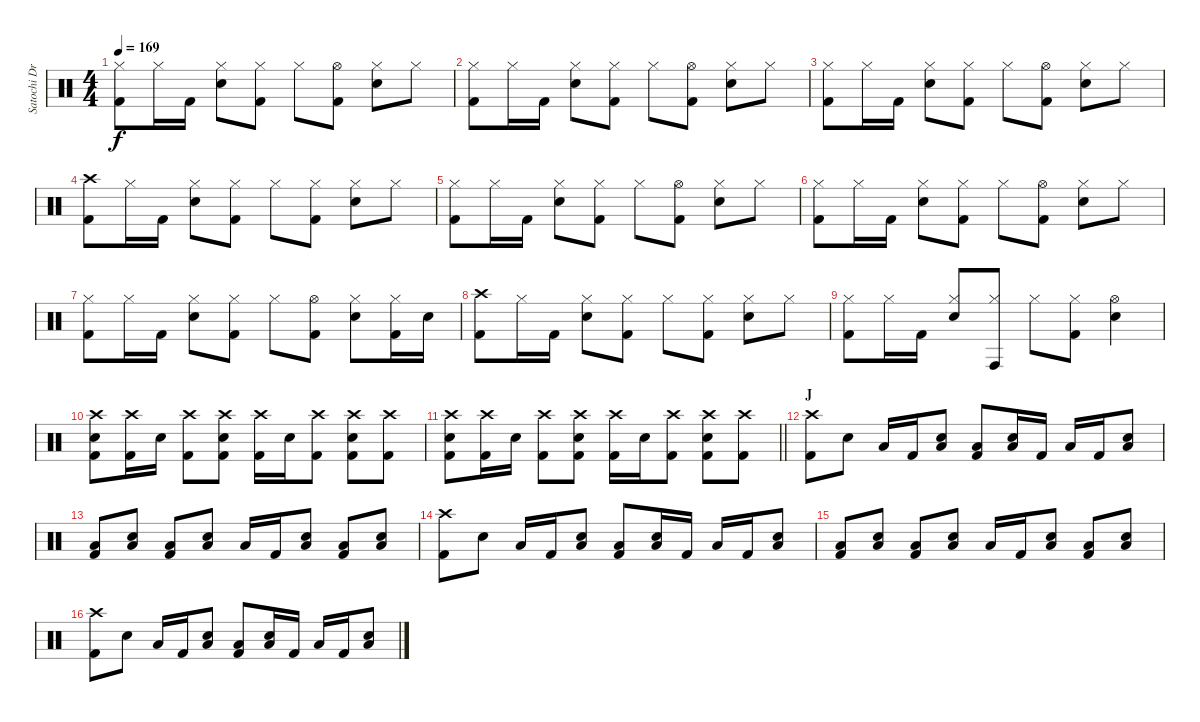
\track ("Satochi Drums" "Satochi Dr") {instrument percussion}
\staff {score}
\articulation defaults
\ts (4 4)
\tempo 169
\clef neutral
\ks c
("Hi-Hat (closed)" "Kick (hit) 2").8{dy f} "Hi-Hat (closed)".16 "Kick (hit) 2".16 ("Hi-Hat (closed)" "Snare (hit) 2").8 ("Hi-Hat (closed)" "Kick (hit) 2").8 "Hi-Hat (closed)".8 ("Hi-Hat (open)" "Kick (hit) 2").8 ("Hi-Hat (closed)" "Snare (hit) 2").8 "Hi-Hat (closed)".8 |
("Hi-Hat (closed)" "Kick (hit) 2").8 "Hi-Hat (closed)".16 "Kick (hit) 2".16 ("Hi-Hat (closed)" "Snare (hit) 2").8 ("Hi-Hat (closed)" "Kick (hit) 2").8 "Hi-Hat (closed)".8 ("Hi-Hat (open)" "Kick (hit) 2").8 ("Hi-Hat (closed)" "Snare (hit) 2").8 "Hi-Hat (closed)".8 |
("Hi-Hat (closed)" "Kick (hit) 2").8 "Hi-Hat (closed)".16 "Kick (hit) 2".16 ("Hi-Hat (closed)" "Snare (hit) 2").8 ("Hi-Hat (closed)" "Kick (hit) 2").8 "Hi-Hat (closed)".8 ("Hi-Hat (open)" "Kick (hit) 2").8 ("Hi-Hat (closed)" "Snare (hit) 2").8 "Hi-Hat (closed)".8 |
("Crash high (hit)" "Kick (hit) 2").8 "Hi-Hat (closed)".16 "Kick (hit) 2".16 ("Hi-Hat (closed)" "Snare (hit) 2").8 ("Hi-Hat (closed)" "Kick (hit) 2").8 "Hi-Hat (closed)".8 ("Hi-Hat (closed)" "Kick (hit) 2").8 ("Hi-Hat (closed)" "Snare (hit) 2").8 "Hi-Hat (closed)".8 |
("Hi-Hat (closed)" "Kick (hit) 2").8 "Hi-Hat (closed)".16 "Kick (hit) 2".16 ("Hi-Hat (closed)" "Snare (hit) 2").8 ("Hi-Hat (closed)" "Kick (hit) 2").8 "Hi-Hat (closed)".8 ("Hi-Hat (open)" "Kick (hit) 2").8 ("Hi-Hat (closed)" "Snare (hit) 2").8 "Hi-Hat (closed)".8 |
("Hi-Hat (closed)" "Kick (hit) 2").8 "Hi-Hat (closed)".16 "Kick (hit) 2".16 ("Hi-Hat (closed)" "Snare (hit) 2").8 ("Hi-Hat (closed)" "Kick (hit) 2").8 "Hi-Hat (closed)".8 ("Hi-Hat (open)" "Kick (hit) 2").8 ("Hi-Hat (closed)" "Snare (hit) 2").8 "Hi-Hat (closed)".8 |
("Hi-Hat (closed)" "Kick (hit) 2").8 "Hi-Hat (closed)".16 "Kick (hit) 2".16 ("Hi-Hat (closed)" "Snare (hit) 2").8 ("Hi-Hat (closed)" "Kick (hit) 2").8 "Hi-Hat (closed)".8 ("Hi-Hat (open)" "Kick (hit) 2").8 ("Hi-Hat (closed)" "Snare (hit) 2").8 ("Hi-Hat (closed)" "Kick (hit) 2").16 "Snare (hit) 2".16 |
("Crash high (hit)" "Kick (hit) 2").8 "Hi-Hat (closed)".16 "Kick (hit) 2".16 ("Hi-Hat (closed)" "Snare (hit) 2").8 ("Hi-Hat (closed)" "Kick (hit) 2").8 "Hi-Hat (closed)".8 ("Hi-Hat (closed)" "Kick (hit) 2").8 ("Hi-Hat (closed)" "Snare (hit) 2").8 "Hi-Hat (closed)".8 |
("Hi-Hat (closed)" "Kick (hit) 2").8 "Hi-Hat (closed)".16 "Kick (hit) 2".16 ("Hi-Hat (closed)" "Snare (hit) 2").8 ("Hi-Hat (closed)" "Conga high (hit)").8 "Hi-Hat (closed)".8 ("Hi-Hat (closed)" "Kick (hit) 2").8 ("Hi-Hat (open)" "Snare (hit) 2").4 |
("Crash high (hit)" "Snare (hit) 2" "Kick (hit) 2").8 ("Crash high (hit)" "Kick (hit) 2").16 "Snare (hit) 2".16 ("Crash high (hit)" "Kick (hit) 2").8 ("Crash high (hit)" "Snare (hit) 2" "Kick (hit) 2").8 ("Crash high (hit)" "Kick (hit) 2").16 "Snare (hit) 2".16 ("Crash high (hit)" "Kick (hit) 2").8 ("Crash high (hit)" "Snare (hit) 2" "Kick (hit) 2").8 ("Crash high (hit)" "Kick (hit) 2").8 |
\barLineRight lightlight
("Crash high (hit)" "Snare (hit) 2" "Kick (hit) 2").8 ("Crash high (hit)" "Kick (hit) 2").16 "Snare (hit) 2".16 ("Crash high (hit)" "Kick (hit) 2").8 ("Crash high (hit)" "Snare (hit) 2" "Kick (hit) 2").8 ("Crash high (hit)" "Kick (hit) 2").16 "Snare (hit) 2".16 ("Crash high (hit)" "Kick (hit) 2").8 ("Crash high (hit)" "Snare (hit) 2" "Kick (hit) 2").8 ("Crash high (hit)" "Kick (hit) 2").8 |
\section ("" "J")
("Crash high (hit)" "Kick (hit) 2").8 "Snare (hit) 2".8 "Low Floor Tom (hit)".16 "Kick (hit) 2".16 ("Snare (hit) 2" "Low Floor Tom (hit)").8 ("Low Floor Tom (hit)" "Kick (hit) 2").8 ("Snare (hit) 2" "Low Floor Tom (hit)").16 "Kick (hit) 2".16 "Low Floor Tom (hit)".16 "Kick (hit) 2".16 ("Snare (hit) 2" "Low Floor Tom (hit)").8 |
("Low Floor Tom (hit)" "Kick (hit) 2").8 ("Snare (hit) 2" "Low Floor Tom (hit)").8 ("Low Floor Tom (hit)" "Kick (hit) 2").8 ("Snare (hit) 2" "Low Floor Tom (hit)").8 "Low Floor Tom (hit)".16 "Kick (hit) 2".16 ("Snare (hit) 2" "Low Floor Tom (hit)").8 ("Low Floor Tom (hit)" "Kick (hit) 2").8 ("Snare (hit) 2" "Low Floor Tom (hit)").8 |
("Crash high (hit)" "Kick (hit) 2").8 "Snare (hit) 2".8 "Low Floor Tom (hit)".16 "Kick (hit) 2".16 ("Snare (hit) 2" "Low Floor Tom (hit)").8 ("Low Floor Tom (hit)" "Kick (hit) 2").8 ("Snare (hit) 2" "Low Floor Tom (hit)").16 "Kick (hit) 2".16 "Low Floor Tom (hit)".16 "Kick (hit) 2".16 ("Snare (hit) 2" "Low Floor Tom (hit)").8 |
("Low Floor Tom (hit)" "Kick (hit) 2").8 ("Snare (hit) 2" "Low Floor Tom (hit)").8 ("Low Floor Tom (hit)" "Kick (hit) 2").8 ("Snare (hit) 2" "Low Floor Tom (hit)").8 "Low Floor Tom (hit)".16 "Kick (hit) 2".16 ("Snare (hit) 2" "Low Floor Tom (hit)").8 ("Low Floor Tom (hit)" "Kick (hit) 2").8 ("Snare (hit) 2" "Low Floor Tom (hit)").8 |
("Crash high (hit)" "Kick (hit) 2").8 "Snare (hit) 2".8 "Low Floor Tom (hit)".16 "Kick (hit) 2".16 ("Snare (hit) 2" "Low Floor Tom (hit)").8 ("Low Floor Tom (hit)" "Kick (hit) 2").8 ("Snare (hit) 2" "Low Floor Tom (hit)").16 "Kick (hit) 2".16 "Low Floor Tom (hit)".16 "Kick (hit) 2".16 ("Snare (hit) 2" "Low Floor Tom (hit)").8
